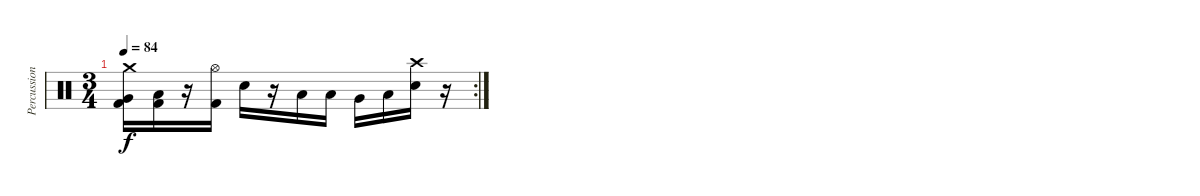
\track ("Percussion" "Percussion") {instrument percussion}
\staff {score}
\articulation defaults
\rc 2
\ts (3 4)
\tempo 84
\clef neutral
\ks c
("Crash medium (hit)" "Very Low Tom (hit)" "Kick (hit) 2").16{dy f} ("Low Floor Tom (hit)" "Kick (hit) 2").16 r.16 ("Hi-Hat (open)" "Kick (hit) 2").16 "Electric Snare (hit)".16 r.16 "Low Floor Tom (hit)".16 "Low Floor Tom (hit)".16 "Very Low Tom (hit)".16 "Low Floor Tom (hit)".16 ("Crash high (hit)" "Electric Snare (hit)").16 r.16
